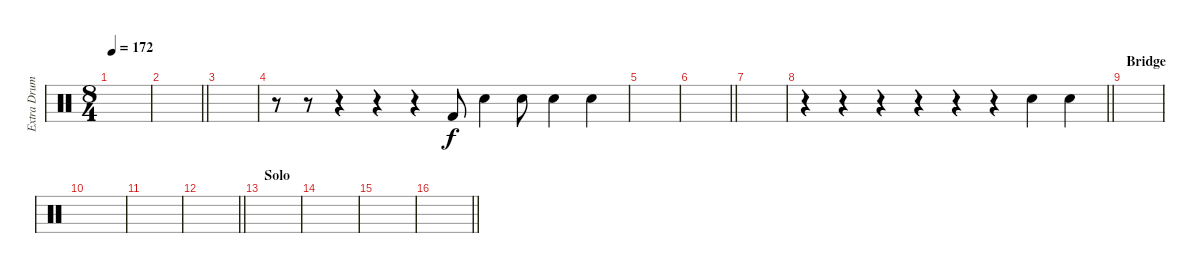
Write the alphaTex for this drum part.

\track ("Extra Drums" "Extra Drum") {instrument percussion}
\staff {score}
\articulation defaults
\ts (8 4)
\tempo 172
\clef neutral
\ks c
|
\barLineRight lightlight
|
|
r.8 r.8 r.4 r.4 r.4 "Kick (hit) 2".8{volume 14} "Snare (hit) 2".4 "Snare (hit) 2".8 "Electric Snare (hit)".4 "Snare (hit) 2".4 |
|
\barLineRight lightlight
|
|
\barLineRight lightlight
r.4 r.4 r.4 r.4 r.4 r.4 "Snare (hit) 2".4 "Electric Snare (hit)".4 |
\section ("" "Bridge")
|
|
|
\barLineRight lightlight
|
\section ("" "Solo")
|
|
|
\barLineRight lightlight
